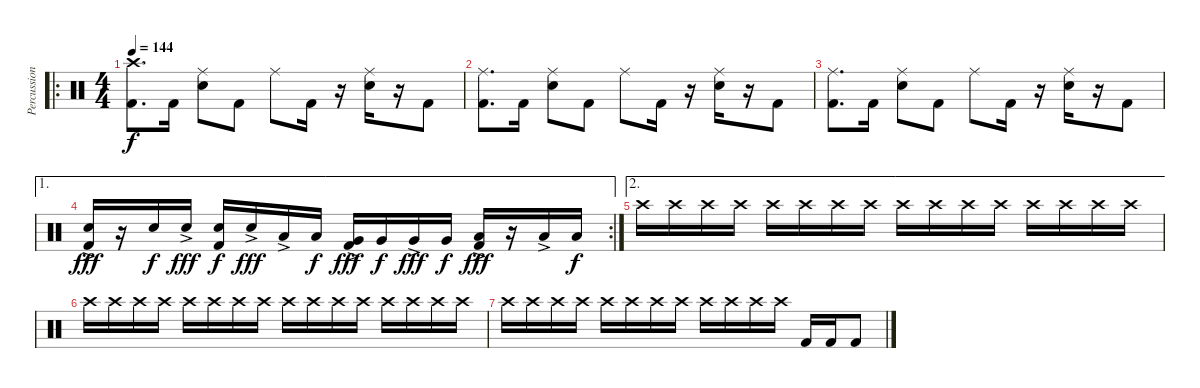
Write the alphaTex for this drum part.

\track ("Percussion" "Percussion") {instrument percussion}
\staff {score}
\articulation defaults
\ro
\ts (4 4)
\tempo 144
\clef neutral
\ks c
("Crash high (hit)" "Kick (hit) 2").8{d dy f} "Kick (hit) 2".16 ("Ride (middle)" "Snare (hit) 2").8 "Kick (hit) 2".8 "Ride (middle)".8 "Kick (hit) 2".16 r.16 ("Ride (middle)" "Snare (hit) 2").16 r.16 "Kick (hit) 2".8 |
("Ride (middle)" "Kick (hit) 2").8{d} "Kick (hit) 2".16 ("Ride (middle)" "Snare (hit) 2").8 "Kick (hit) 2".8 "Ride (middle)".8 "Kick (hit) 2".16 r.16 ("Ride (middle)" "Snare (hit) 2").16 r.16 "Kick (hit) 2".8 |
("Ride (middle)" "Kick (hit) 2").8{d} "Kick (hit) 2".16 ("Ride (middle)" "Snare (hit) 2").8 "Kick (hit) 2".8 "Ride (middle)".8 "Kick (hit) 2".16 r.16 ("Ride (middle)" "Snare (hit) 2").16 r.16 "Kick (hit) 2".8 |
\ae 1
\rc 2
("Snare (hit) 2"{ac} "Kick (hit) 2").16{dy fff} r.16 "Snare (hit) 2".16{dy f} "Snare (hit) 2"{ac}.16{dy fff} ("Snare (hit) 2" "Kick (hit) 2").16{dy f} "Snare (hit) 2"{ac}.16{dy fff} "Low Tom (hit)"{ac}.16 "Low Tom (hit)".16{dy f} ("Very Low Tom (hit)"{ac} "Kick (hit) 2").16{dy fff} "Very Low Tom (hit)".16{dy f} "Very Low Tom (hit)"{ac}.16{dy fff} "Very Low Tom (hit)".16{dy f} ("Low Floor Tom (hit)"{ac} "Kick (hit) 2").16{dy fff} r.16 "Low Tom (hit)"{ac}.16 "Low Tom (hit)".16{dy f} |
\ae 2 "Crash high (hit)".16 "Crash high (hit)".16 "Crash high (hit)".16 "Crash high (hit)".16 "Crash high (hit)".16 "Crash high (hit)".16 "Crash high (hit)".16 "Crash high (hit)".16 "Crash high (hit)".16 "Crash high (hit)".16 "Crash high (hit)".16 "Crash high (hit)".16 "Crash high (hit)".16 "Crash high (hit)".16 "Crash high (hit)".16 "Crash high (hit)".16
|
"Crash high (hit)".16 "Crash high (hit)".16 "Crash high (hit)".16 "Crash high (hit)".16 "Crash high (hit)".16 "Crash high (hit)".16 "Crash high (hit)".16 "Crash high (hit)".16 "Crash high (hit)".16 "Crash high (hit)".16 "Crash high (hit)".16 "Crash high (hit)".16 "Crash high (hit)".16 "Crash high (hit)".16 "Crash high (hit)".16 "Crash high (hit)".16 |
"Crash high (hit)".16 "Crash high (hit)".16 "Crash high (hit)".16 "Crash high (hit)".16 "Crash high (hit)".16 "Crash high (hit)".16 "Crash high (hit)".16 "Crash high (hit)".16 "Crash high (hit)".16 "Crash high (hit)".16 "Crash high (hit)".16 "Crash high (hit)".16 "Kick (hit) 2".16 "Kick (hit) 2".16 "Kick (hit) 2".8
